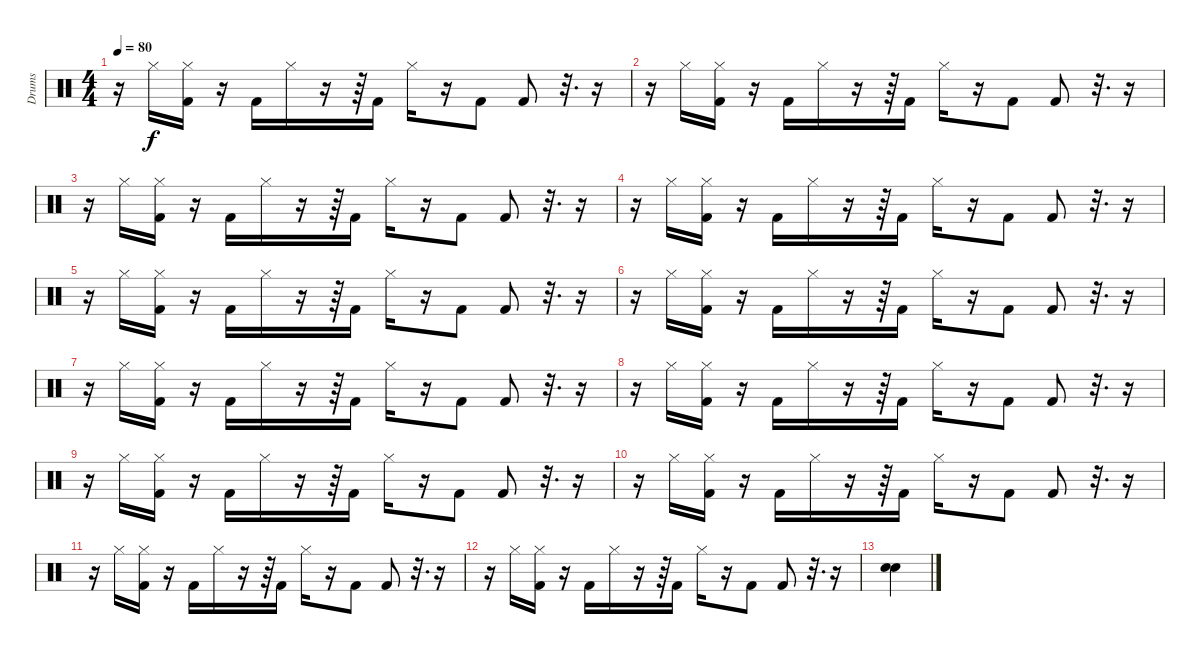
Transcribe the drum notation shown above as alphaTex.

\track ("Drums" "Drums") {instrument percussion}
\staff {score}
\articulation defaults
\ts (4 4)
\tempo 80
\clef neutral
\ks c
r.16{dy f} "Hi-Hat (closed)".16 ("Hi-Hat (closed)" "Kick (hit) 2").16 r.16 "Kick (hit) 2".16 "Hi-Hat (closed)".16 r.16 r.64 "Kick (hit) 2".16 "Hi-Hat (closed)".16 r.16 "Kick (hit) 2".8 "Kick (hit) 2".8 r.32{d} r.16 |
r.16 "Hi-Hat (closed)".16 ("Hi-Hat (closed)" "Kick (hit) 2").16 r.16 "Kick (hit) 2".16 "Hi-Hat (closed)".16 r.16 r.64 "Kick (hit) 2".16 "Hi-Hat (closed)".16 r.16 "Kick (hit) 2".8 "Kick (hit) 2".8 r.32{d} r.16 |
r.16 "Hi-Hat (closed)".16 ("Hi-Hat (closed)" "Kick (hit) 2").16 r.16 "Kick (hit) 2".16 "Hi-Hat (closed)".16 r.16 r.64 "Kick (hit) 2".16 "Hi-Hat (closed)".16 r.16 "Kick (hit) 2".8 "Kick (hit) 2".8 r.32{d} r.16 |
r.16 "Hi-Hat (closed)".16 ("Hi-Hat (closed)" "Kick (hit) 2").16 r.16 "Kick (hit) 2".16 "Hi-Hat (closed)".16 r.16 r.64 "Kick (hit) 2".16 "Hi-Hat (closed)".16 r.16 "Kick (hit) 2".8 "Kick (hit) 2".8 r.32{d} r.16 |
r.16 "Hi-Hat (closed)".16 ("Hi-Hat (closed)" "Kick (hit) 2").16 r.16 "Kick (hit) 2".16 "Hi-Hat (closed)".16 r.16 r.64 "Kick (hit) 2".16 "Hi-Hat (closed)".16 r.16 "Kick (hit) 2".8 "Kick (hit) 2".8 r.32{d} r.16 |
r.16 "Hi-Hat (closed)".16 ("Hi-Hat (closed)" "Kick (hit) 2").16 r.16 "Kick (hit) 2".16 "Hi-Hat (closed)".16 r.16 r.64 "Kick (hit) 2".16 "Hi-Hat (closed)".16 r.16 "Kick (hit) 2".8 "Kick (hit) 2".8 r.32{d} r.16 |
r.16 "Hi-Hat (closed)".16 ("Hi-Hat (closed)" "Kick (hit) 2").16 r.16 "Kick (hit) 2".16 "Hi-Hat (closed)".16 r.16 r.64 "Kick (hit) 2".16 "Hi-Hat (closed)".16 r.16 "Kick (hit) 2".8 "Kick (hit) 2".8 r.32{d} r.16 |
r.16 "Hi-Hat (closed)".16 ("Hi-Hat (closed)" "Kick (hit) 2").16 r.16 "Kick (hit) 2".16 "Hi-Hat (closed)".16 r.16 r.64 "Kick (hit) 2".16 "Hi-Hat (closed)".16 r.16 "Kick (hit) 2".8 "Kick (hit) 2".8 r.32{d} r.16 |
r.16 "Hi-Hat (closed)".16 ("Hi-Hat (closed)" "Kick (hit) 2").16 r.16 "Kick (hit) 2".16 "Hi-Hat (closed)".16 r.16 r.64 "Kick (hit) 2".16 "Hi-Hat (closed)".16 r.16 "Kick (hit) 2".8 "Kick (hit) 2".8 r.32{d} r.16 |
r.16 "Hi-Hat (closed)".16 ("Hi-Hat (closed)" "Kick (hit) 2").16 r.16 "Kick (hit) 2".16 "Hi-Hat (closed)".16 r.16 r.64 "Kick (hit) 2".16 "Hi-Hat (closed)".16 r.16 "Kick (hit) 2".8 "Kick (hit) 2".8 r.32{d} r.16 |
r.16 "Hi-Hat (closed)".16 ("Hi-Hat (closed)" "Kick (hit) 2").16 r.16 "Kick (hit) 2".16 "Hi-Hat (closed)".16 r.16 r.64 "Kick (hit) 2".16 "Hi-Hat (closed)".16 r.16 "Kick (hit) 2".8 "Kick (hit) 2".8 r.32{d} r.16 |
r.16 "Hi-Hat (closed)".16 ("Hi-Hat (closed)" "Kick (hit) 2").16 r.16 "Kick (hit) 2".16 "Hi-Hat (closed)".16 r.16 r.64 "Kick (hit) 2".16 "Hi-Hat (closed)".16 r.16 "Kick (hit) 2".8 "Kick (hit) 2".8 r.32{d} r.16 |
("Snare (hit) 2" "Snare (hit) 2").4
